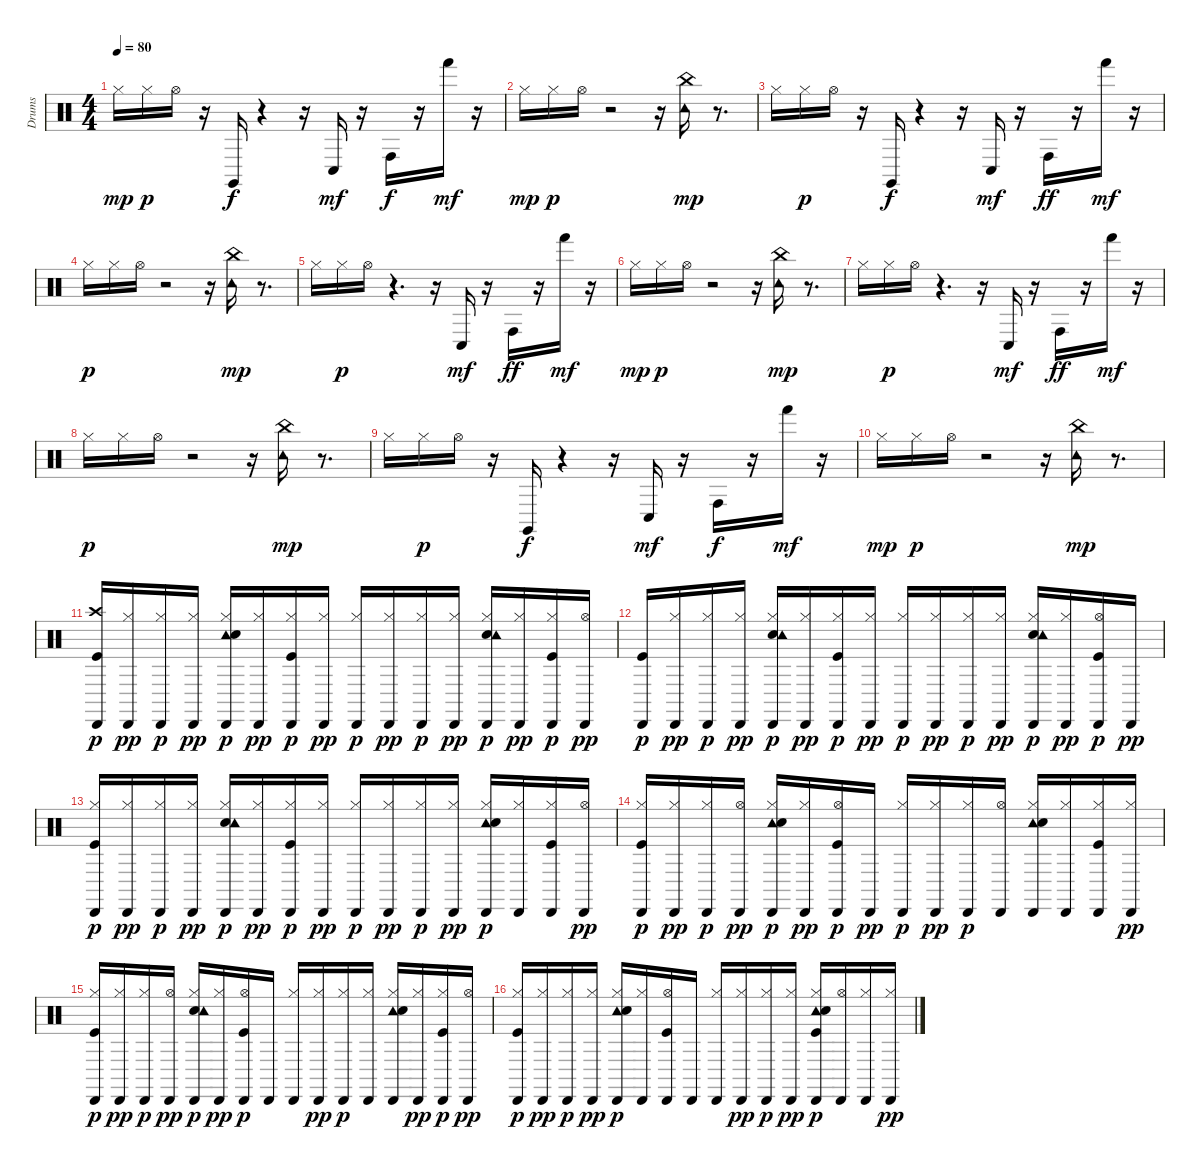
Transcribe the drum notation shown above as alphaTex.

\track ("Drums   " "Drums   ") {instrument percussion}
\staff {score}
\articulation defaults
\ts (4 4)
\tempo 80
\clef neutral
\ks c "Hi-Hat (closed)".16{dy mp} "Hi-Hat (closed)".16{dy p} "Hi-Hat (open)".16
r.16 "Claves (hit)".16{dy f} r.4 r.16 "Conga low (hit)".16{dy mf} r.16 "Conga high (hit)".16{dy f} r.16 "Hand (hit)".16{dy mf} r.16 |
"Hi-Hat (closed)".16{dy mp} "Hi-Hat (closed)".16{dy p} "Hi-Hat (open)".16 r.2 r.16 ("China (hit)" "Tambourine (hit)").16{dy mp} r.8{d} |
"Hi-Hat (closed)".16 "Hi-Hat (closed)".16{dy p} "Hi-Hat (open)".16 r.16 "Claves (hit)".16{dy f} r.4 r.16 "Conga low (hit)".16{dy mf} r.16 "Conga high (hit)".16{dy ff} r.16 "Hand (hit)".16{dy mf} r.16 |
"Hi-Hat (closed)".16{dy p} "Hi-Hat (closed)".16 "Hi-Hat (open)".16 r.2 r.16 ("China (hit)" "Tambourine (hit)").16{dy mp} r.8{d} |
"Hi-Hat (closed)".16 "Hi-Hat (closed)".16{dy p} "Hi-Hat (open)".16 r.4{d} r.16 "Conga low (hit)".16{dy mf} r.16 "Conga high (hit)".16{dy ff} r.16 "Hand (hit)".16{dy mf} r.16 |
"Hi-Hat (closed)".16{dy mp} "Hi-Hat (closed)".16{dy p} "Hi-Hat (open)".16 r.2 r.16 ("China (hit)" "Tambourine (hit)").16{dy mp} r.8{d} |
"Hi-Hat (closed)".16 "Hi-Hat (closed)".16{dy p} "Hi-Hat (open)".16 r.4{d} r.16 "Conga low (hit)".16{dy mf} r.16 "Conga high (hit)".16{dy ff} r.16 "Hand (hit)".16{dy mf} r.16 |
"Hi-Hat (closed)".16{dy p} "Hi-Hat (closed)".16 "Hi-Hat (open)".16 r.2 r.16 ("China (hit)" "Tambourine (hit)").16{dy mp} r.8{d} |
"Hi-Hat (closed)".16 "Hi-Hat (closed)".16{dy p} "Hi-Hat (open)".16 r.16 "Claves (hit)".16{dy f} r.4 r.16 "Conga low (hit)".16{dy mf} r.16 "Conga high (hit)".16{dy f} r.16 "Hand (hit)".16{dy mf} r.16 |
"Hi-Hat (closed)".16{dy mp} "Hi-Hat (closed)".16{dy p} "Hi-Hat (open)".16 r.2 r.16 ("China (hit)" "Tambourine (hit)").16{dy mp} r.8{d} |
("Kick (hit)" "Crash high (hit)" "Cabasa (hit)").16{dy p} ("Hi-Hat (closed)" "Cabasa (hit)").16{dy pp} ("Hi-Hat (closed)" "Cabasa (hit)").16{dy p} ("Hi-Hat (closed)" "Cabasa (hit)").16{dy pp} ("Tambourine (hit)" "Snare (hit) 2" "Hi-Hat (closed)" "Cabasa (hit)").16{dy p} ("Hi-Hat (closed)" "Cabasa (hit)").16{dy pp} ("Kick (hit)" "Hi-Hat (closed)" "Cabasa (hit)").16{dy p} ("Hi-Hat (closed)" "Cabasa (hit)").16{dy pp} ("Hi-Hat (closed)" "Cabasa (hit)").16{dy p} ("Hi-Hat (closed)" "Cabasa (hit)").16{dy pp} ("Hi-Hat (closed)" "Cabasa (hit)").16{dy p} ("Hi-Hat (closed)" "Cabasa (hit)").16{dy pp} ("Snare (hit) 2" "Hi-Hat (closed)" "Tambourine (hit)" "Cabasa (hit)").16{dy p} ("Hi-Hat (closed)" "Cabasa (hit)").16{dy pp} ("Kick (hit)" "Hi-Hat (closed)" "Cabasa (hit)").16{dy p} ("Hi-Hat (open)" "Cabasa (hit)").16{dy pp} |
("Kick (hit)" "Cabasa (hit)").16{dy p} ("Hi-Hat (closed)" "Cabasa (hit)").16{dy pp} ("Hi-Hat (closed)" "Cabasa (hit)").16{dy p} ("Hi-Hat (closed)" "Cabasa (hit)").16{dy pp} ("Snare (hit) 2" "Hi-Hat (closed)" "Tambourine (hit)" "Cabasa (hit)").16{dy p} ("Hi-Hat (closed)" "Cabasa (hit)").16{dy pp} ("Kick (hit)" "Hi-Hat (closed)" "Cabasa (hit)").16{dy p} ("Hi-Hat (closed)" "Cabasa (hit)").16{dy pp} ("Hi-Hat (closed)" "Cabasa (hit)").16{dy p} ("Hi-Hat (closed)" "Cabasa (hit)").16{dy pp} ("Hi-Hat (closed)" "Cabasa (hit)").16{dy p} ("Hi-Hat (closed)" "Cabasa (hit)").16{dy pp} ("Snare (hit) 2" "Hi-Hat (closed)" "Tambourine (hit)" "Cabasa (hit)").16{dy p} ("Hi-Hat (closed)" "Cabasa (hit)").16{dy pp} ("Kick (hit)" "Hi-Hat (open)" "Cabasa (hit)").16{dy p} "Cabasa (hit)".16{dy pp} |
("Kick (hit)" "Hi-Hat (closed)" "Cabasa (hit)").16{dy p} ("Hi-Hat (closed)" "Cabasa (hit)").16{dy pp} ("Hi-Hat (closed)" "Cabasa (hit)").16{dy p} ("Hi-Hat (closed)" "Cabasa (hit)").16{dy pp} ("Snare (hit) 2" "Hi-Hat (closed)" "Tambourine (hit)" "Cabasa (hit)").16{dy p} ("Hi-Hat (closed)" "Cabasa (hit)").16{dy pp} ("Kick (hit)" "Hi-Hat (closed)" "Cabasa (hit)").16{dy p} ("Hi-Hat (closed)" "Cabasa (hit)").16{dy pp} ("Hi-Hat (closed)" "Cabasa (hit)").16{dy p} ("Hi-Hat (closed)" "Cabasa (hit)").16{dy pp} ("Hi-Hat (closed)" "Cabasa (hit)").16{dy p} ("Hi-Hat (closed)" "Cabasa (hit)").16{dy pp} ("Tambourine (hit)" "Snare (hit) 2" "Hi-Hat (closed)" "Cabasa (hit)").16{dy p} ("Hi-Hat (closed)" "Cabasa (hit)").16 ("Kick (hit)" "Hi-Hat (closed)" "Cabasa (hit)").16 ("Hi-Hat (open)" "Cabasa (hit)").16{dy pp} |
("Kick (hit)" "Hi-Hat (closed)" "Cabasa (hit)").16{dy p} ("Hi-Hat (closed)" "Cabasa (hit)").16{dy pp} ("Hi-Hat (closed)" "Cabasa (hit)").16{dy p} ("Hi-Hat (open)" "Cabasa (hit)").16{dy pp} ("Tambourine (hit)" "Snare (hit) 2" "Hi-Hat (closed)" "Cabasa (hit)").16{dy p} ("Hi-Hat (closed)" "Cabasa (hit)").16{dy pp} ("Kick (hit)" "Hi-Hat (open)" "Cabasa (hit)").16{dy p} "Cabasa (hit)".16{dy pp} ("Hi-Hat (closed)" "Cabasa (hit)").16{dy p} ("Hi-Hat (closed)" "Cabasa (hit)").16{dy pp} ("Hi-Hat (closed)" "Cabasa (hit)").16{dy p} ("Hi-Hat (open)" "Cabasa (hit)").16 ("Tambourine (hit)" "Snare (hit) 2" "Hi-Hat (closed)" "Cabasa (hit)").16 ("Hi-Hat (closed)" "Cabasa (hit)").16 ("Kick (hit)" "Hi-Hat (closed)" "Cabasa (hit)").16 ("Hi-Hat (closed)" "Cabasa (hit)").16{dy pp} |
("Kick (hit)" "Hi-Hat (closed)" "Cabasa (hit)").16{dy p} ("Hi-Hat (closed)" "Cabasa (hit)").16{dy pp} ("Hi-Hat (closed)" "Cabasa (hit)").16{dy p} ("Hi-Hat (open)" "Cabasa (hit)").16{dy pp} ("Snare (hit) 2" "Hi-Hat (closed)" "Tambourine (hit)" "Cabasa (hit)").16{dy p} ("Hi-Hat (closed)" "Cabasa (hit)").16{dy pp} ("Kick (hit)" "Hi-Hat (open)" "Cabasa (hit)").16{dy p} "Cabasa (hit)".16 ("Hi-Hat (closed)" "Cabasa (hit)").16 ("Hi-Hat (closed)" "Cabasa (hit)").16{dy pp} ("Hi-Hat (closed)" "Cabasa (hit)").16{dy p} ("Hi-Hat (closed)" "Cabasa (hit)").16 ("Tambourine (hit)" "Snare (hit) 2" "Hi-Hat (closed)" "Cabasa (hit)").16 ("Hi-Hat (closed)" "Cabasa (hit)").16{dy pp} ("Kick (hit)" "Hi-Hat (closed)" "Cabasa (hit)").16{dy p} ("Hi-Hat (open)" "Cabasa (hit)").16{dy pp} |
("Kick (hit)" "Hi-Hat (closed)" "Cabasa (hit)").16{dy p} ("Hi-Hat (closed)" "Cabasa (hit)").16{dy pp} ("Hi-Hat (closed)" "Cabasa (hit)").16{dy p} ("Hi-Hat (closed)" "Cabasa (hit)").16{dy pp} ("Tambourine (hit)" "Snare (hit) 2" "Hi-Hat (closed)" "Cabasa (hit)").16{dy p} ("Hi-Hat (closed)" "Cabasa (hit)").16 ("Kick (hit)" "Hi-Hat (open)" "Cabasa (hit)").16 "Cabasa (hit)".16 ("Hi-Hat (closed)" "Cabasa (hit)").16 ("Hi-Hat (closed)" "Cabasa (hit)").16{dy pp} ("Hi-Hat (closed)" "Cabasa (hit)").16{dy p} ("Hi-Hat (closed)" "Cabasa (hit)").16{dy pp} ("Tambourine (hit)" "Kick (hit)" "Snare (hit) 2" "Hi-Hat (closed)" "Cabasa (hit)").16{dy p} ("Hi-Hat (open)" "Cabasa (hit)").16 ("Hi-Hat (closed)" "Cabasa (hit)").16 ("Hi-Hat (closed)" "Cabasa (hit)").16{dy pp}
